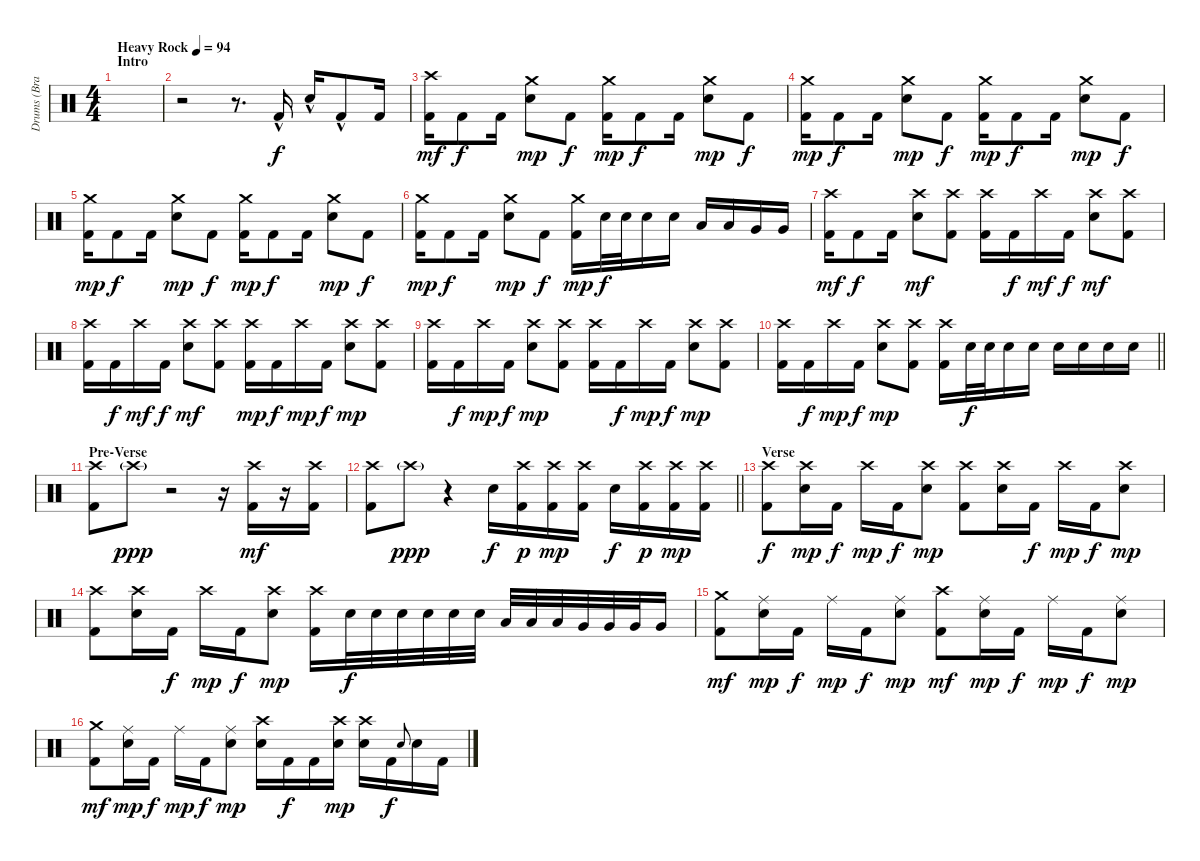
\track ("Drums (Brandon Saller)" "Drums (Bra") {instrument percussion}
\staff {score}
\articulation defaults
\ts (4 4)
\section ("" "Intro")
\tempo (94 "Heavy Rock")
\clef neutral
\ks c
|
r.2 r.8{d} "Kick (hit) 2"{hac}.16 "Electric Snare (hit)"{hac}.16 "Kick (hit) 2"{hac}.8 "Kick (hit) 2".16{dy f} |
("Crash high (hit)" "Kick (hit) 2").16{dy mf} "Kick (hit) 2".8{dy f} "Kick (hit) 2".16 ("Crash medium (hit)" "Electric Snare (hit)").8{dy mp} "Kick (hit) 2".8{dy f} ("Crash medium (hit)" "Kick (hit) 2").16{dy mp} "Kick (hit) 2".8{dy f} "Kick (hit) 2".16 ("Crash medium (hit)" "Electric Snare (hit)").8{dy mp} "Kick (hit) 2".8{dy f} |
("Crash medium (hit)" "Kick (hit) 2").16{dy mp} "Kick (hit) 2".8{dy f} "Kick (hit) 2".16 ("Crash medium (hit)" "Electric Snare (hit)").8{dy mp} "Kick (hit) 2".8{dy f} ("Crash medium (hit)" "Kick (hit) 2").16{dy mp} "Kick (hit) 2".8{dy f} "Kick (hit) 2".16 ("Crash medium (hit)" "Electric Snare (hit)").8{dy mp} "Kick (hit) 2".8{dy f} |
("Crash medium (hit)" "Kick (hit) 2").16{dy mp} "Kick (hit) 2".8{dy f} "Kick (hit) 2".16 ("Crash medium (hit)" "Electric Snare (hit)").8{dy mp} "Kick (hit) 2".8{dy f} ("Crash medium (hit)" "Kick (hit) 2").16{dy mp} "Kick (hit) 2".8{dy f} "Kick (hit) 2".16 ("Crash medium (hit)" "Electric Snare (hit)").8{dy mp} "Kick (hit) 2".8{dy f} |
("Crash medium (hit)" "Kick (hit) 2").16{dy mp} "Kick (hit) 2".8{dy f} "Kick (hit) 2".16 ("Crash medium (hit)" "Electric Snare (hit)").8{dy mp} "Kick (hit) 2".8{dy f} ("Crash medium (hit)" "Kick (hit) 2").16{dy mp} "Electric Snare (hit)".32{dy f} "Electric Snare (hit)".32 "Electric Snare (hit)".16 "Electric Snare (hit)".16 "Low Tom (hit)".16 "Low Tom (hit)".16 "Very Low Tom (hit)".16 "Very Low Tom (hit)".16 |
("Crash high (hit)" "Kick (hit) 2").16{dy mf} "Kick (hit) 2".8{dy f} "Kick (hit) 2".16 ("Crash high (hit)" "Electric Snare (hit)").8{dy mf} ("Crash high (hit)" "Kick (hit) 2").8 ("Crash high (hit)" "Kick (hit) 2").16 "Kick (hit) 2".16{dy f} "Crash high (hit)".16{dy mf} "Kick (hit) 2".16{dy f} ("Crash high (hit)" "Electric Snare (hit)").8{dy mf} ("Crash high (hit)" "Kick (hit) 2").8 |
("Crash high (hit)" "Kick (hit) 2").16 "Kick (hit) 2".16{dy f} "Crash high (hit)".16{dy mf} "Kick (hit) 2".16{dy f} ("Crash high (hit)" "Electric Snare (hit)").8{dy mf} ("Crash high (hit)" "Kick (hit) 2").8 ("Crash high (hit)" "Kick (hit) 2").16{dy mp} "Kick (hit) 2".16{dy f} "Crash high (hit)".16{dy mp} "Kick (hit) 2".16{dy f} ("Crash high (hit)" "Electric Snare (hit)").8{dy mp} ("Crash high (hit)" "Kick (hit) 2").8 |
("Crash high (hit)" "Kick (hit) 2").16 "Kick (hit) 2".16{dy f} "Crash high (hit)".16{dy mp} "Kick (hit) 2".16{dy f} ("Crash high (hit)" "Electric Snare (hit)").8{dy mp} ("Crash high (hit)" "Kick (hit) 2").8 ("Crash high (hit)" "Kick (hit) 2").16 "Kick (hit) 2".16{dy f} "Crash high (hit)".16{dy mp} "Kick (hit) 2".16{dy f} ("Crash high (hit)" "Electric Snare (hit)").8{dy mp} ("Crash high (hit)" "Kick (hit) 2").8 |
\barLineRight lightlight
("Crash high (hit)" "Kick (hit) 2").16 "Kick (hit) 2".16{dy f} "Crash high (hit)".16{dy mp} "Kick (hit) 2".16{dy f} ("Crash high (hit)" "Electric Snare (hit)").8{dy mp} ("Crash high (hit)" "Kick (hit) 2").8 ("Crash high (hit)" "Kick (hit) 2").16 "Electric Snare (hit)".32{dy f} "Electric Snare (hit)".32 "Electric Snare (hit)".16 "Electric Snare (hit)".16 "Electric Snare (hit)".16 "Electric Snare (hit)".16 "Electric Snare (hit)".16 "Electric Snare (hit)".16 |
\section ("" "Pre-Verse")
("Crash high (hit)" "Kick (hit) 2").8 "Crash high (hit)"{g}.8{dy ppp} r.2 r.16 ("Crash high (hit)" "Kick (hit) 2").16{dy mf} r.16 ("Crash high (hit)" "Kick (hit) 2").16 |
\barLineRight lightlight
("Crash high (hit)" "Kick (hit) 2").8 "Crash high (hit)"{g}.8{dy ppp} r.4 "Electric Snare (hit)".16{dy f} ("Crash high (hit)" "Kick (hit) 2").16{dy p} ("Crash high (hit)" "Kick (hit) 2").16{dy mp} ("Crash high (hit)" "Kick (hit) 2").16 "Electric Snare (hit)".16{dy f} ("Crash high (hit)" "Kick (hit) 2").16{dy p} ("Crash high (hit)" "Kick (hit) 2").16{dy mp} ("Crash high (hit)" "Kick (hit) 2").16 |
\section ("" "Verse")
("Crash high (hit)" "Kick (hit) 2").8{dy f} ("Crash high (hit)" "Electric Snare (hit)").16{dy mp} "Kick (hit) 2".16{dy f} "Crash high (hit)".16{dy mp} "Kick (hit) 2".16{dy f} ("Crash high (hit)" "Electric Snare (hit)").8{dy mp} ("Crash high (hit)" "Kick (hit) 2").8 ("Crash high (hit)" "Electric Snare (hit)").16 "Kick (hit) 2".16{dy f} "Crash high (hit)".16{dy mp} "Kick (hit) 2".16{dy f} ("Crash high (hit)" "Electric Snare (hit)").8{dy mp} |
("Crash high (hit)" "Kick (hit) 2").8 ("Crash high (hit)" "Electric Snare (hit)").16 "Kick (hit) 2".16{dy f} "Crash high (hit)".16{dy mp} "Kick (hit) 2".16{dy f} ("Crash high (hit)" "Electric Snare (hit)").8{dy mp} ("Crash high (hit)" "Kick (hit) 2").16 "Electric Snare (hit)".32{dy f} "Electric Snare (hit)".32 "Electric Snare (hit)".32 "Electric Snare (hit)".32 "Electric Snare (hit)".32 "Electric Snare (hit)".32 "Low Tom (hit)".32 "Low Tom (hit)".32 "Low Tom (hit)".32 "Very Low Tom (hit)".32 "Very Low Tom (hit)".32 "Very Low Tom (hit)".32 "Very Low Tom (hit)".16 |
("Crash medium (hit)" "Kick (hit) 2").8{dy mf} ("Ride (middle)" "Electric Snare (hit)").16{dy mp} "Kick (hit) 2".16{dy f} "Ride (middle)".16{dy mp} "Kick (hit) 2".16{dy f} ("Ride (middle)" "Electric Snare (hit)").8{dy mp} ("Crash high (hit)" "Kick (hit) 2").8{dy mf} ("Ride (middle)" "Electric Snare (hit)").16{dy mp} "Kick (hit) 2".16{dy f} "Ride (middle)".16{dy mp} "Kick (hit) 2".16{dy f} ("Ride (middle)" "Electric Snare (hit)").8{dy mp} |
("Crash medium (hit)" "Kick (hit) 2").8{dy mf} ("Ride (middle)" "Electric Snare (hit)").16{dy mp} "Kick (hit) 2".16{dy f} "Ride (middle)".16{dy mp} "Kick (hit) 2".16{dy f} ("Ride (middle)" "Electric Snare (hit)").8{dy mp} ("Crash high (hit)" "Electric Snare (hit)").16 "Kick (hit) 2".16{dy f} "Kick (hit) 2".16 ("Crash high (hit)" "Electric Snare (hit)").16{dy mp} ("Crash high (hit)" "Electric Snare (hit)").16 "Kick (hit) 2".16{dy f} "Electric Snare (hit)"{h}.8{gr onbeat} "Electric Snare (hit)".16 "Kick (hit) 2".16
